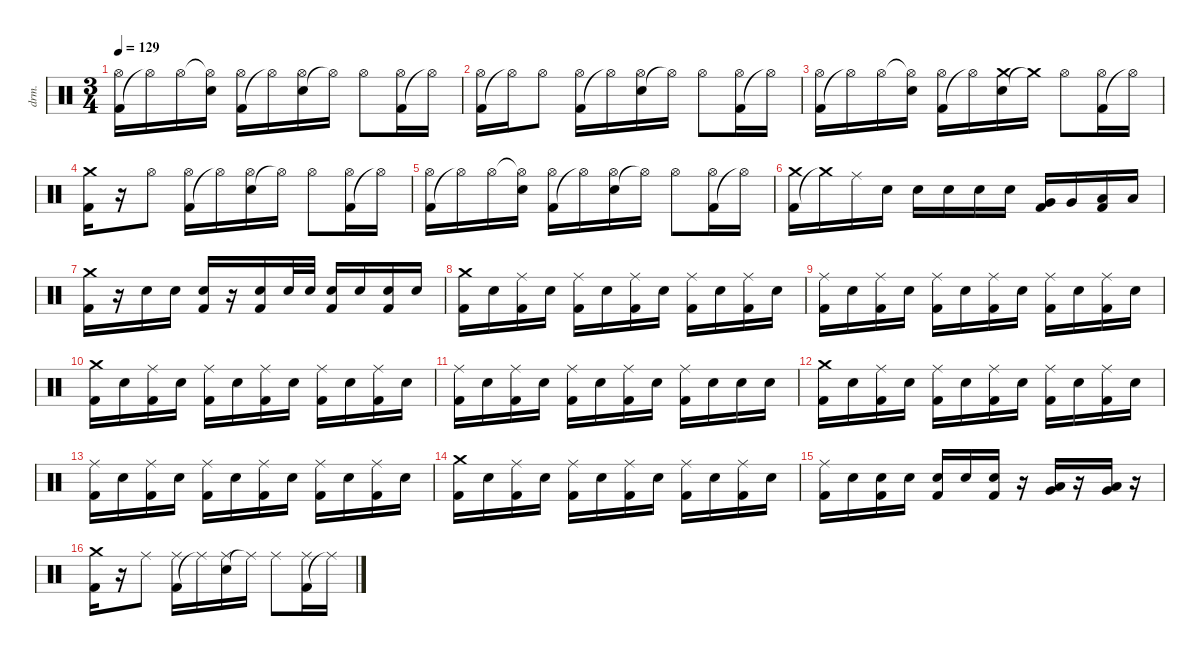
\defaultSystemsLayout 4
\hideDynamics
\bracketExtendMode nobrackets
\otherSystemsTrackNameOrientation horizontal
\track ("Drumkit" "drm.") {instrument percussion}
\staff {score}
\articulation defaults
\ts (3 4)
\tempo 129
\clef neutral
\ks c
("Kick (hit) 2" "Hi-Hat (open)"{acc #}).16{dy fff} "Hi-Hat (open)"{t acc #}.16 "Hi-Hat (open)"{acc #}.16 ("Hi-Hat (open)"{t acc #} "Snare (hit) 2").16 ("Kick (hit) 2" "Hi-Hat (open)"{acc #}).16 "Hi-Hat (open)"{t acc #}.16 ("Snare (hit) 2" "Hi-Hat (open)"{acc #}).16 "Hi-Hat (open)"{t acc #}.16 "Hi-Hat (open)"{acc #}.8 ("Kick (hit) 2" "Hi-Hat (open)"{acc #}).16 "Hi-Hat (open)"{t acc #}.16 |
("Kick (hit) 2" "Hi-Hat (open)"{acc #}).16 "Hi-Hat (open)"{t acc #}.16 "Hi-Hat (open)"{acc #}.8 ("Kick (hit) 2" "Hi-Hat (open)"{acc #}).16 "Hi-Hat (open)"{t acc #}.16 ("Snare (hit) 2" "Hi-Hat (open)"{acc #}).16 "Hi-Hat (open)"{t acc #}.16 "Hi-Hat (open)"{acc #}.8 ("Kick (hit) 2" "Hi-Hat (open)"{acc #}).16 "Hi-Hat (open)"{t acc #}.16 |
("Kick (hit) 2" "Hi-Hat (open)"{acc #}).16 "Hi-Hat (open)"{t acc #}.16 "Hi-Hat (open)"{acc #}.16 ("Hi-Hat (open)"{t acc #} "Snare (hit) 2").16 ("Kick (hit) 2" "Hi-Hat (open)"{acc #}).16 "Hi-Hat (open)"{t acc #}.16 ("Snare (hit) 2" "Crash medium (hit)").16 "Crash medium (hit)"{t}.16 "Hi-Hat (open)"{acc #}.8 ("Kick (hit) 2" "Hi-Hat (open)"{acc #}).16 "Hi-Hat (open)"{t acc #}.16 |
("Kick (hit) 2" "Crash medium (hit)").16 r.16 "Hi-Hat (open)"{acc #}.8 ("Kick (hit) 2" "Hi-Hat (open)"{acc #}).16 "Hi-Hat (open)"{t acc #}.16 ("Snare (hit) 2" "Hi-Hat (open)"{acc #}).16 "Hi-Hat (open)"{t acc #}.16 "Hi-Hat (open)"{acc #}.8 ("Kick (hit) 2" "Hi-Hat (open)"{acc #}).16 "Hi-Hat (open)"{t acc #}.16 |
("Kick (hit) 2" "Hi-Hat (open)"{acc #}).16 "Hi-Hat (open)"{t acc #}.16 "Hi-Hat (open)"{acc #}.16 ("Hi-Hat (open)"{t acc #} "Snare (hit) 2").16 ("Kick (hit) 2" "Hi-Hat (open)"{acc #}).16 "Hi-Hat (open)"{t acc #}.16 ("Snare (hit) 2" "Hi-Hat (open)"{acc #}).16 "Hi-Hat (open)"{t acc #}.16 "Hi-Hat (open)"{acc #}.8 ("Kick (hit) 2" "Hi-Hat (open)"{acc #}).16 "Hi-Hat (open)"{t acc #}.16 |
("Kick (hit) 2" "Crash medium (hit)").16 "Crash medium (hit)"{t}.16 "Ride (middle)"{acc #}.16 "Snare (hit) 2".16 "Snare (hit) 2".16 "Snare (hit) 2".16 "Snare (hit) 2".16 "Snare (hit) 2".16 ("Kick (hit) 2" "Very Low Tom (hit)").16 "Very Low Tom (hit)".16 ("Kick (hit) 2" "Low Floor Tom (hit)").16 "Low Floor Tom (hit)".16 |
("Kick (hit) 2" "Crash medium (hit)").16 r.16 "Snare (hit) 2".16 "Snare (hit) 2".16 ("Kick (hit) 2" "Snare (hit) 2").16 r.16 ("Kick (hit) 2" "Snare (hit) 2").16 "Snare (hit) 2".32 "Snare (hit) 2".32 ("Kick (hit) 2" "Snare (hit) 2").16 "Snare (hit) 2".16 ("Kick (hit) 2" "Snare (hit) 2").16 "Snare (hit) 2".16 |
("Kick (hit) 2" "Crash medium (hit)").16 "Snare (hit) 2".16 ("Kick (hit) 2" "Ride (middle)"{acc #}).16 "Snare (hit) 2".16 ("Kick (hit) 2" "Ride (middle)"{acc #}).16 "Snare (hit) 2".16 ("Kick (hit) 2" "Ride (middle)"{acc #}).16 "Snare (hit) 2".16 ("Kick (hit) 2" "Ride (middle)"{acc #}).16 "Snare (hit) 2".16 ("Kick (hit) 2" "Ride (middle)"{acc #}).16 "Snare (hit) 2".16 |
("Kick (hit) 2" "Ride (middle)"{acc #}).16 "Snare (hit) 2".16 ("Kick (hit) 2" "Ride (middle)"{acc #}).16 "Snare (hit) 2".16 ("Kick (hit) 2" "Ride (middle)"{acc #}).16 "Snare (hit) 2".16 ("Kick (hit) 2" "Ride (middle)"{acc #}).16 "Snare (hit) 2".16 ("Kick (hit) 2" "Ride (middle)"{acc #}).16 "Snare (hit) 2".16 ("Kick (hit) 2" "Ride (middle)"{acc #}).16 "Snare (hit) 2".16 |
("Kick (hit) 2" "Crash medium (hit)").16 "Snare (hit) 2".16 ("Kick (hit) 2" "Ride (middle)"{acc #}).16 "Snare (hit) 2".16 ("Kick (hit) 2" "Ride (middle)"{acc #}).16 "Snare (hit) 2".16 ("Kick (hit) 2" "Ride (middle)"{acc #}).16 "Snare (hit) 2".16 ("Kick (hit) 2" "Ride (middle)"{acc #}).16 "Snare (hit) 2".16 ("Kick (hit) 2" "Ride (middle)"{acc #}).16 "Snare (hit) 2".16 |
("Kick (hit) 2" "Ride (middle)"{acc #}).16 "Snare (hit) 2".16 ("Kick (hit) 2" "Ride (middle)"{acc #}).16 "Snare (hit) 2".16 ("Kick (hit) 2" "Ride (middle)"{acc #}).16 "Snare (hit) 2".16 ("Kick (hit) 2" "Ride (middle)"{acc #}).16 "Snare (hit) 2".16 ("Kick (hit) 2" "Ride (middle)"{acc #}).16 "Snare (hit) 2".16 "Snare (hit) 2".16 "Snare (hit) 2".16 |
("Kick (hit) 2" "Crash medium (hit)").16 "Snare (hit) 2".16 ("Kick (hit) 2" "Ride (middle)"{acc #}).16 "Snare (hit) 2".16 ("Kick (hit) 2" "Ride (middle)"{acc #}).16 "Snare (hit) 2".16 ("Kick (hit) 2" "Ride (middle)"{acc #}).16 "Snare (hit) 2".16 ("Kick (hit) 2" "Ride (middle)"{acc #}).16 "Snare (hit) 2".16 ("Kick (hit) 2" "Ride (middle)"{acc #}).16 "Snare (hit) 2".16 |
("Kick (hit) 2" "Ride (middle)"{acc #}).16 "Snare (hit) 2".16 ("Kick (hit) 2" "Ride (middle)"{acc #}).16 "Snare (hit) 2".16 ("Kick (hit) 2" "Ride (middle)"{acc #}).16 "Snare (hit) 2".16 ("Kick (hit) 2" "Ride (middle)"{acc #}).16 "Snare (hit) 2".16 ("Kick (hit) 2" "Ride (middle)"{acc #}).16 "Snare (hit) 2".16 ("Kick (hit) 2" "Ride (middle)"{acc #}).16 "Snare (hit) 2".16 |
("Kick (hit) 2" "Crash medium (hit)").16 "Snare (hit) 2".16 ("Kick (hit) 2" "Ride (middle)"{acc #}).16 "Snare (hit) 2".16 ("Kick (hit) 2" "Ride (middle)"{acc #}).16 "Snare (hit) 2".16 ("Kick (hit) 2" "Ride (middle)"{acc #}).16 "Snare (hit) 2".16 ("Kick (hit) 2" "Ride (middle)"{acc #}).16 "Snare (hit) 2".16 ("Kick (hit) 2" "Ride (middle)"{acc #}).16 "Snare (hit) 2".16 |
("Kick (hit) 2" "Ride (middle)"{acc #}).16 "Snare (hit) 2".16 ("Kick (hit) 2" "Snare (hit) 2").16 "Snare (hit) 2".16 ("Kick (hit) 2" "Snare (hit) 2").16 "Snare (hit) 2".16 ("Kick (hit) 2" "Snare (hit) 2").16 r.16 ("Very Low Tom (hit)" "Low Tom (hit)").16 r.16 ("Low Floor Tom (hit)" "Very Low Tom (hit)").16 r.16 |
("Kick (hit) 2" "Crash medium (hit)").16 r.16 "Ride (middle)"{acc #}.8 ("Kick (hit) 2" "Ride (middle)"{acc #}).16 "Ride (middle)"{t acc #}.16 ("Snare (hit) 2" "Ride (middle)"{acc #}).16 "Ride (middle)"{t acc #}.16 "Ride (middle)"{acc #}.8 ("Kick (hit) 2" "Ride (middle)"{acc #}).16 "Ride (middle)"{t acc #}.16
